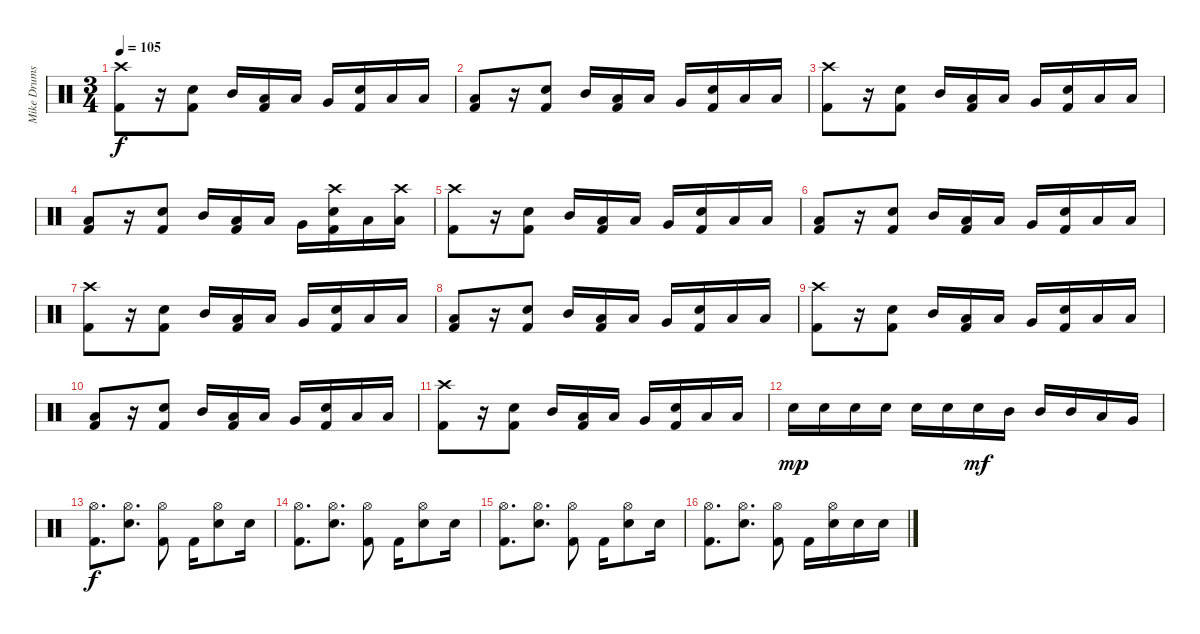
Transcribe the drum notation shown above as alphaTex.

\track ("Mike Drums" "Mike Drums") {instrument percussion}
\staff {score}
\articulation defaults
\ts (3 4)
\tempo 105
\clef neutral
\ks c
("Crash high (hit)" "Kick (hit) 2").8{dy f} r.16 ("Electric Snare (hit)" "Kick (hit) 2").8 "Mid Tom (hit)".16 ("Low Tom (hit)" "Kick (hit) 2").16 "Low Tom (hit)".16 "Very Low Tom (hit)".16 ("Electric Snare (hit)" "Kick (hit) 2").16 "Low Floor Tom (hit)".16 "Low Floor Tom (hit)".16 |
("Low Floor Tom (hit)" "Kick (hit) 2").8 r.16 ("Electric Snare (hit)" "Kick (hit) 2").8 "Mid Tom (hit)".16 ("Low Tom (hit)" "Kick (hit) 2").16 "Low Tom (hit)".16 "Very Low Tom (hit)".16 ("Electric Snare (hit)" "Kick (hit) 2").16 "Low Floor Tom (hit)".16 "Low Floor Tom (hit)".16 |
("Crash high (hit)" "Kick (hit) 2").8 r.16 ("Electric Snare (hit)" "Kick (hit) 2").8 "Mid Tom (hit)".16 ("Low Tom (hit)" "Kick (hit) 2").16 "Low Tom (hit)".16 "Very Low Tom (hit)".16 ("Electric Snare (hit)" "Kick (hit) 2").16 "Low Floor Tom (hit)".16 "Low Floor Tom (hit)".16 |
("Low Floor Tom (hit)" "Kick (hit) 2").8 r.16 ("Electric Snare (hit)" "Kick (hit) 2").8 "Mid Tom (hit)".16 ("Low Tom (hit)" "Kick (hit) 2").16 "Low Tom (hit)".16 "Very Low Tom (hit)".16 ("Electric Snare (hit)" "Crash high (hit)" "Kick (hit) 2").16 "Low Floor Tom (hit)".16 ("Low Floor Tom (hit)" "Crash high (hit)").16 |
("Crash high (hit)" "Kick (hit) 2").8 r.16 ("Electric Snare (hit)" "Kick (hit) 2").8 "Mid Tom (hit)".16 ("Low Tom (hit)" "Kick (hit) 2").16 "Low Tom (hit)".16 "Very Low Tom (hit)".16 ("Electric Snare (hit)" "Kick (hit) 2").16 "Low Floor Tom (hit)".16 "Low Floor Tom (hit)".16 |
("Low Floor Tom (hit)" "Kick (hit) 2").8 r.16 ("Electric Snare (hit)" "Kick (hit) 2").8 "Mid Tom (hit)".16 ("Low Tom (hit)" "Kick (hit) 2").16 "Low Tom (hit)".16 "Very Low Tom (hit)".16 ("Electric Snare (hit)" "Kick (hit) 2").16 "Low Floor Tom (hit)".16 "Low Floor Tom (hit)".16 |
("Crash high (hit)" "Kick (hit) 2").8 r.16 ("Electric Snare (hit)" "Kick (hit) 2").8 "Mid Tom (hit)".16 ("Low Tom (hit)" "Kick (hit) 2").16 "Low Tom (hit)".16 "Very Low Tom (hit)".16 ("Electric Snare (hit)" "Kick (hit) 2").16 "Low Floor Tom (hit)".16 "Low Floor Tom (hit)".16 |
("Low Floor Tom (hit)" "Kick (hit) 2").8 r.16 ("Electric Snare (hit)" "Kick (hit) 2").8 "Mid Tom (hit)".16 ("Low Tom (hit)" "Kick (hit) 2").16 "Low Tom (hit)".16 "Very Low Tom (hit)".16 ("Electric Snare (hit)" "Kick (hit) 2").16 "Low Floor Tom (hit)".16 "Low Floor Tom (hit)".16 |
("Crash high (hit)" "Kick (hit) 2").8 r.16 ("Electric Snare (hit)" "Kick (hit) 2").8 "Mid Tom (hit)".16 ("Low Tom (hit)" "Kick (hit) 2").16 "Low Tom (hit)".16 "Very Low Tom (hit)".16 ("Electric Snare (hit)" "Kick (hit) 2").16 "Low Floor Tom (hit)".16 "Low Floor Tom (hit)".16 |
("Low Floor Tom (hit)" "Kick (hit) 2").8 r.16 ("Electric Snare (hit)" "Kick (hit) 2").8 "Mid Tom (hit)".16 ("Low Tom (hit)" "Kick (hit) 2").16 "Low Tom (hit)".16 "Very Low Tom (hit)".16 ("Electric Snare (hit)" "Kick (hit) 2").16 "Low Floor Tom (hit)".16 "Low Floor Tom (hit)".16 |
("Crash high (hit)" "Kick (hit) 2").8 r.16 ("Electric Snare (hit)" "Kick (hit) 2").8 "Mid Tom (hit)".16 ("Low Tom (hit)" "Kick (hit) 2").16 "Low Tom (hit)".16 "Very Low Tom (hit)".16 ("Electric Snare (hit)" "Kick (hit) 2").16 "Low Floor Tom (hit)".16 "Low Floor Tom (hit)".16 |
"Electric Snare (hit)".16{dy mp} "Electric Snare (hit)".16 "Electric Snare (hit)".16 "Electric Snare (hit)".16 "Electric Snare (hit)".16 "Electric Snare (hit)".16 "Electric Snare (hit)".16{dy mf} "Mid Tom (hit)".16 "Mid Tom (hit)".16 "Mid Tom (hit)".16 "Low Tom (hit)".16 "Very Low Tom (hit)".16 |
("Hi-Hat (open)" "Kick (hit) 2").8{d dy f} ("Hi-Hat (open)" "Electric Snare (hit)").8{d} ("Hi-Hat (open)" "Kick (hit) 2").8 "Kick (hit) 2".16 ("Hi-Hat (open)" "Electric Snare (hit)").8 "Electric Snare (hit)".16 |
("Hi-Hat (open)" "Kick (hit) 2").8{d} ("Hi-Hat (open)" "Electric Snare (hit)").8{d} ("Hi-Hat (open)" "Kick (hit) 2").8 "Kick (hit) 2".16 ("Hi-Hat (open)" "Electric Snare (hit)").8 "Electric Snare (hit)".16 |
("Hi-Hat (open)" "Kick (hit) 2").8{d} ("Hi-Hat (open)" "Electric Snare (hit)").8{d} ("Hi-Hat (open)" "Kick (hit) 2").8 "Kick (hit) 2".16 ("Hi-Hat (open)" "Electric Snare (hit)").8 "Electric Snare (hit)".16 |
("Hi-Hat (open)" "Kick (hit) 2").8{d} ("Hi-Hat (open)" "Electric Snare (hit)").8{d} ("Hi-Hat (open)" "Kick (hit) 2").8 "Kick (hit) 2".16 ("Hi-Hat (open)" "Electric Snare (hit)").16 "Electric Snare (hit)".16 "Electric Snare (hit)".16
